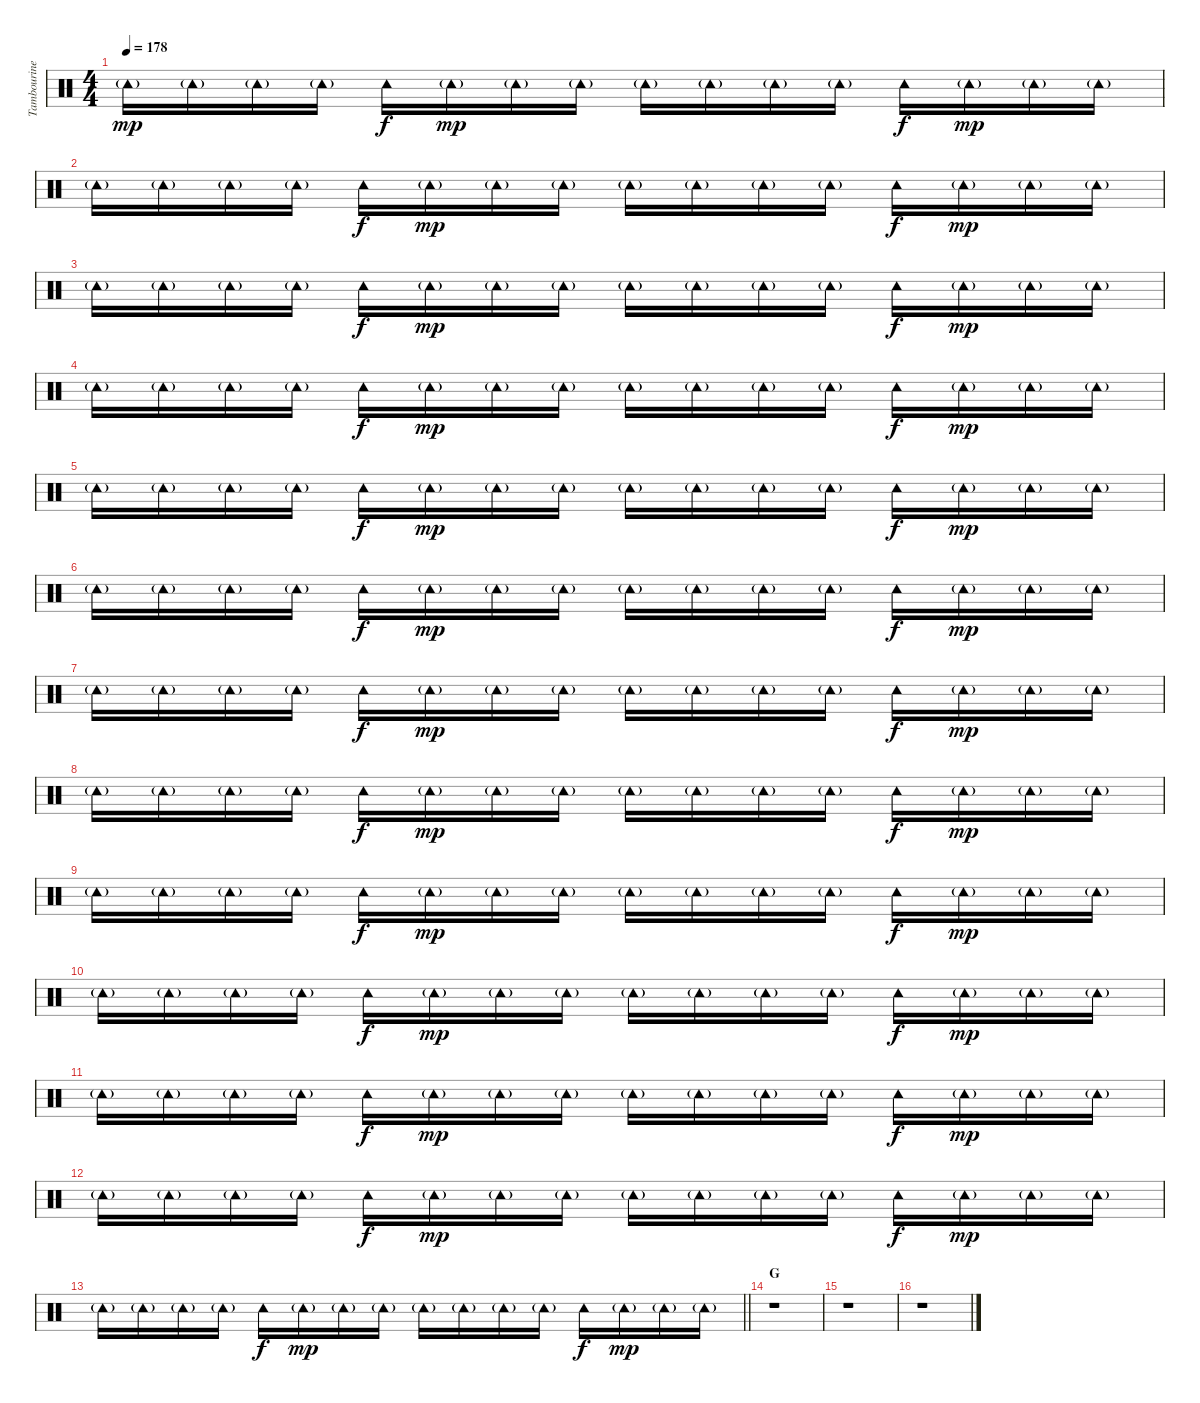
\track ("Tambourine" "Tambourine") {instrument percussion}
\staff {score}
\articulation defaults
\ts (4 4)
\tempo 178
\clef neutral
\ks c "Tambourine (hit)"{g}.16{dy mp} "Tambourine (hit)"{g}.16 "Tambourine (hit)"{g}.16 "Tambourine (hit)"{g}.16 "Tambourine (hit)".16{dy f} "Tambourine (hit)"{g}.16{dy mp} "Tambourine (hit)"{g}.16 "Tambourine (hit)"{g}.16 "Tambourine (hit)"{g}.16 "Tambourine (hit)"{g}.16 "Tambourine (hit)"{g}.16 "Tambourine (hit)"{g}.16 "Tambourine (hit)".16{dy f} "Tambourine (hit)"{g}.16{dy mp} "Tambourine (hit)"{g}.16 "Tambourine (hit)"{g}.16
|
"Tambourine (hit)"{g}.16 "Tambourine (hit)"{g}.16 "Tambourine (hit)"{g}.16 "Tambourine (hit)"{g}.16 "Tambourine (hit)".16{dy f} "Tambourine (hit)"{g}.16{dy mp} "Tambourine (hit)"{g}.16 "Tambourine (hit)"{g}.16 "Tambourine (hit)"{g}.16 "Tambourine (hit)"{g}.16 "Tambourine (hit)"{g}.16 "Tambourine (hit)"{g}.16 "Tambourine (hit)".16{dy f} "Tambourine (hit)"{g}.16{dy mp} "Tambourine (hit)"{g}.16 "Tambourine (hit)"{g}.16 |
"Tambourine (hit)"{g}.16 "Tambourine (hit)"{g}.16 "Tambourine (hit)"{g}.16 "Tambourine (hit)"{g}.16 "Tambourine (hit)".16{dy f} "Tambourine (hit)"{g}.16{dy mp} "Tambourine (hit)"{g}.16 "Tambourine (hit)"{g}.16 "Tambourine (hit)"{g}.16 "Tambourine (hit)"{g}.16 "Tambourine (hit)"{g}.16 "Tambourine (hit)"{g}.16 "Tambourine (hit)".16{dy f} "Tambourine (hit)"{g}.16{dy mp} "Tambourine (hit)"{g}.16 "Tambourine (hit)"{g}.16 |
"Tambourine (hit)"{g}.16 "Tambourine (hit)"{g}.16 "Tambourine (hit)"{g}.16 "Tambourine (hit)"{g}.16 "Tambourine (hit)".16{dy f} "Tambourine (hit)"{g}.16{dy mp} "Tambourine (hit)"{g}.16 "Tambourine (hit)"{g}.16 "Tambourine (hit)"{g}.16 "Tambourine (hit)"{g}.16 "Tambourine (hit)"{g}.16 "Tambourine (hit)"{g}.16 "Tambourine (hit)".16{dy f} "Tambourine (hit)"{g}.16{dy mp} "Tambourine (hit)"{g}.16 "Tambourine (hit)"{g}.16 |
"Tambourine (hit)"{g}.16 "Tambourine (hit)"{g}.16 "Tambourine (hit)"{g}.16 "Tambourine (hit)"{g}.16 "Tambourine (hit)".16{dy f} "Tambourine (hit)"{g}.16{dy mp} "Tambourine (hit)"{g}.16 "Tambourine (hit)"{g}.16 "Tambourine (hit)"{g}.16 "Tambourine (hit)"{g}.16 "Tambourine (hit)"{g}.16 "Tambourine (hit)"{g}.16 "Tambourine (hit)".16{dy f} "Tambourine (hit)"{g}.16{dy mp} "Tambourine (hit)"{g}.16 "Tambourine (hit)"{g}.16 |
"Tambourine (hit)"{g}.16 "Tambourine (hit)"{g}.16 "Tambourine (hit)"{g}.16 "Tambourine (hit)"{g}.16 "Tambourine (hit)".16{dy f} "Tambourine (hit)"{g}.16{dy mp} "Tambourine (hit)"{g}.16 "Tambourine (hit)"{g}.16 "Tambourine (hit)"{g}.16 "Tambourine (hit)"{g}.16 "Tambourine (hit)"{g}.16 "Tambourine (hit)"{g}.16 "Tambourine (hit)".16{dy f} "Tambourine (hit)"{g}.16{dy mp} "Tambourine (hit)"{g}.16 "Tambourine (hit)"{g}.16 |
"Tambourine (hit)"{g}.16 "Tambourine (hit)"{g}.16 "Tambourine (hit)"{g}.16 "Tambourine (hit)"{g}.16 "Tambourine (hit)".16{dy f} "Tambourine (hit)"{g}.16{dy mp} "Tambourine (hit)"{g}.16 "Tambourine (hit)"{g}.16 "Tambourine (hit)"{g}.16 "Tambourine (hit)"{g}.16 "Tambourine (hit)"{g}.16 "Tambourine (hit)"{g}.16 "Tambourine (hit)".16{dy f} "Tambourine (hit)"{g}.16{dy mp} "Tambourine (hit)"{g}.16 "Tambourine (hit)"{g}.16 |
"Tambourine (hit)"{g}.16 "Tambourine (hit)"{g}.16 "Tambourine (hit)"{g}.16 "Tambourine (hit)"{g}.16 "Tambourine (hit)".16{dy f} "Tambourine (hit)"{g}.16{dy mp} "Tambourine (hit)"{g}.16 "Tambourine (hit)"{g}.16 "Tambourine (hit)"{g}.16 "Tambourine (hit)"{g}.16 "Tambourine (hit)"{g}.16 "Tambourine (hit)"{g}.16 "Tambourine (hit)".16{dy f} "Tambourine (hit)"{g}.16{dy mp} "Tambourine (hit)"{g}.16 "Tambourine (hit)"{g}.16 |
"Tambourine (hit)"{g}.16 "Tambourine (hit)"{g}.16 "Tambourine (hit)"{g}.16 "Tambourine (hit)"{g}.16 "Tambourine (hit)".16{dy f} "Tambourine (hit)"{g}.16{dy mp} "Tambourine (hit)"{g}.16 "Tambourine (hit)"{g}.16 "Tambourine (hit)"{g}.16 "Tambourine (hit)"{g}.16 "Tambourine (hit)"{g}.16 "Tambourine (hit)"{g}.16 "Tambourine (hit)".16{dy f} "Tambourine (hit)"{g}.16{dy mp} "Tambourine (hit)"{g}.16 "Tambourine (hit)"{g}.16 |
"Tambourine (hit)"{g}.16 "Tambourine (hit)"{g}.16 "Tambourine (hit)"{g}.16 "Tambourine (hit)"{g}.16 "Tambourine (hit)".16{dy f} "Tambourine (hit)"{g}.16{dy mp} "Tambourine (hit)"{g}.16 "Tambourine (hit)"{g}.16 "Tambourine (hit)"{g}.16 "Tambourine (hit)"{g}.16 "Tambourine (hit)"{g}.16 "Tambourine (hit)"{g}.16 "Tambourine (hit)".16{dy f} "Tambourine (hit)"{g}.16{dy mp} "Tambourine (hit)"{g}.16 "Tambourine (hit)"{g}.16 |
"Tambourine (hit)"{g}.16 "Tambourine (hit)"{g}.16 "Tambourine (hit)"{g}.16 "Tambourine (hit)"{g}.16 "Tambourine (hit)".16{dy f} "Tambourine (hit)"{g}.16{dy mp} "Tambourine (hit)"{g}.16 "Tambourine (hit)"{g}.16 "Tambourine (hit)"{g}.16 "Tambourine (hit)"{g}.16 "Tambourine (hit)"{g}.16 "Tambourine (hit)"{g}.16 "Tambourine (hit)".16{dy f} "Tambourine (hit)"{g}.16{dy mp} "Tambourine (hit)"{g}.16 "Tambourine (hit)"{g}.16 |
"Tambourine (hit)"{g}.16 "Tambourine (hit)"{g}.16 "Tambourine (hit)"{g}.16 "Tambourine (hit)"{g}.16 "Tambourine (hit)".16{dy f} "Tambourine (hit)"{g}.16{dy mp} "Tambourine (hit)"{g}.16 "Tambourine (hit)"{g}.16 "Tambourine (hit)"{g}.16 "Tambourine (hit)"{g}.16 "Tambourine (hit)"{g}.16 "Tambourine (hit)"{g}.16 "Tambourine (hit)".16{dy f} "Tambourine (hit)"{g}.16{dy mp} "Tambourine (hit)"{g}.16 "Tambourine (hit)"{g}.16 |
\barLineRight lightlight "Tambourine (hit)"{g}.16 "Tambourine (hit)"{g}.16 "Tambourine (hit)"{g}.16 "Tambourine (hit)"{g}.16 "Tambourine (hit)".16{dy f} "Tambourine (hit)"{g}.16{dy mp} "Tambourine (hit)"{g}.16 "Tambourine (hit)"{g}.16 "Tambourine (hit)"{g}.16 "Tambourine (hit)"{g}.16 "Tambourine (hit)"{g}.16 "Tambourine (hit)"{g}.16 "Tambourine (hit)".16{dy f} "Tambourine (hit)"{g}.16{dy mp} "Tambourine (hit)"{g}.16 "Tambourine (hit)"{g}.16
|
\section ("" "G")
r.1 |
r.1 |
r.1
